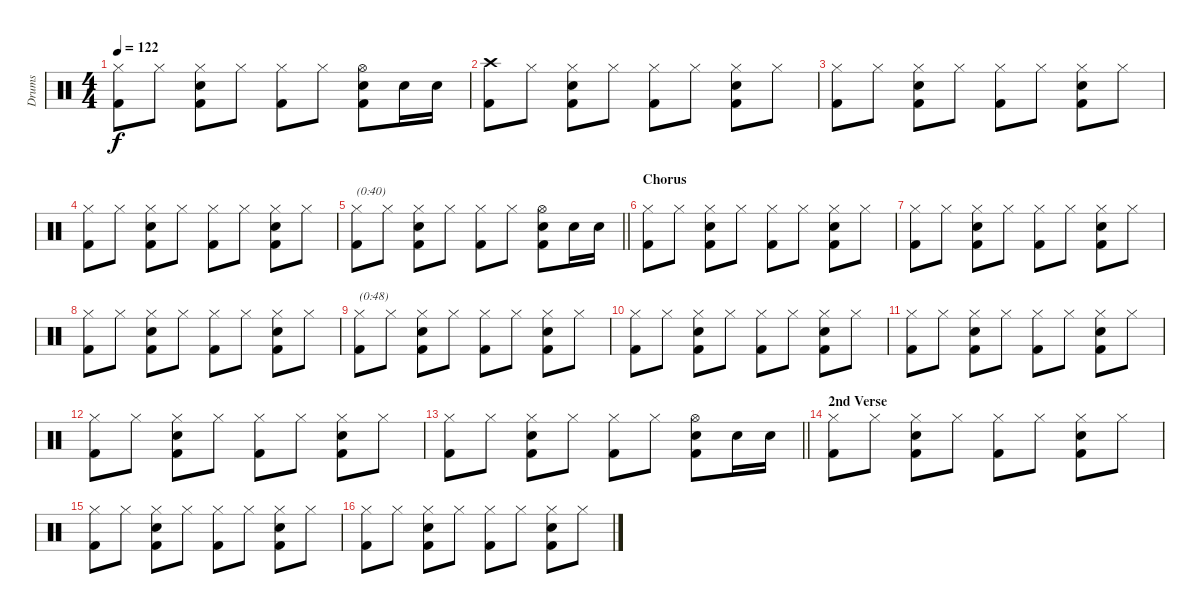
\track ("Drums" "Drums") {instrument percussion}
\staff {score}
\articulation defaults
\ts (4 4)
\tempo 122
\clef neutral
\ks c
("Hi-Hat (closed)" "Kick (hit) 2").8{dy f} "Hi-Hat (closed)".8 ("Hi-Hat (closed)" "Electric Snare (hit)" "Kick (hit) 2").8 "Hi-Hat (closed)".8 ("Hi-Hat (closed)" "Kick (hit) 2").8 "Hi-Hat (closed)".8 ("Hi-Hat (open)" "Electric Snare (hit)" "Kick (hit) 2").8 "Electric Snare (hit)".16 "Electric Snare (hit)".16 |
("Crash high (hit)" "Kick (hit) 2").8 "Hi-Hat (closed)".8 ("Hi-Hat (closed)" "Electric Snare (hit)" "Kick (hit) 2").8 "Hi-Hat (closed)".8 ("Hi-Hat (closed)" "Kick (hit) 2").8 "Hi-Hat (closed)".8 ("Hi-Hat (closed)" "Electric Snare (hit)" "Kick (hit) 2").8 "Hi-Hat (closed)".8 |
("Hi-Hat (closed)" "Kick (hit) 2").8 "Hi-Hat (closed)".8 ("Hi-Hat (closed)" "Electric Snare (hit)" "Kick (hit) 2").8 "Hi-Hat (closed)".8 ("Hi-Hat (closed)" "Kick (hit) 2").8 "Hi-Hat (closed)".8 ("Hi-Hat (closed)" "Electric Snare (hit)" "Kick (hit) 2").8 "Hi-Hat (closed)".8 |
("Hi-Hat (closed)" "Kick (hit) 2").8 "Hi-Hat (closed)".8 ("Hi-Hat (closed)" "Electric Snare (hit)" "Kick (hit) 2").8 "Hi-Hat (closed)".8 ("Hi-Hat (closed)" "Kick (hit) 2").8 "Hi-Hat (closed)".8 ("Hi-Hat (closed)" "Electric Snare (hit)" "Kick (hit) 2").8 "Hi-Hat (closed)".8 |
\barLineRight lightlight
("Hi-Hat (closed)" "Kick (hit) 2").8{txt "(0:40)"} "Hi-Hat (closed)".8 ("Hi-Hat (closed)" "Electric Snare (hit)" "Kick (hit) 2").8 "Hi-Hat (closed)".8 ("Hi-Hat (closed)" "Kick (hit) 2").8 "Hi-Hat (closed)".8 ("Hi-Hat (open)" "Electric Snare (hit)" "Kick (hit) 2").8 "Electric Snare (hit)".16 "Electric Snare (hit)".16 |
\section ("" "Chorus")
("Hi-Hat (closed)" "Kick (hit) 2").8 "Hi-Hat (closed)".8 ("Hi-Hat (closed)" "Electric Snare (hit)" "Kick (hit) 2").8 "Hi-Hat (closed)".8 ("Hi-Hat (closed)" "Kick (hit) 2").8 "Hi-Hat (closed)".8 ("Hi-Hat (closed)" "Electric Snare (hit)" "Kick (hit) 2").8 "Hi-Hat (closed)".8 |
("Hi-Hat (closed)" "Kick (hit) 2").8 "Hi-Hat (closed)".8 ("Hi-Hat (closed)" "Electric Snare (hit)" "Kick (hit) 2").8 "Hi-Hat (closed)".8 ("Hi-Hat (closed)" "Kick (hit) 2").8 "Hi-Hat (closed)".8 ("Hi-Hat (closed)" "Electric Snare (hit)" "Kick (hit) 2").8 "Hi-Hat (closed)".8 |
("Hi-Hat (closed)" "Kick (hit) 2").8 "Hi-Hat (closed)".8 ("Hi-Hat (closed)" "Electric Snare (hit)" "Kick (hit) 2").8 "Hi-Hat (closed)".8 ("Hi-Hat (closed)" "Kick (hit) 2").8 "Hi-Hat (closed)".8 ("Hi-Hat (closed)" "Electric Snare (hit)" "Kick (hit) 2").8 "Hi-Hat (closed)".8 |
("Hi-Hat (closed)" "Kick (hit) 2").8{txt "(0:48)"} "Hi-Hat (closed)".8 ("Hi-Hat (closed)" "Electric Snare (hit)" "Kick (hit) 2").8 "Hi-Hat (closed)".8 ("Hi-Hat (closed)" "Kick (hit) 2").8 "Hi-Hat (closed)".8 ("Hi-Hat (closed)" "Electric Snare (hit)" "Kick (hit) 2").8 "Hi-Hat (closed)".8 |
("Hi-Hat (closed)" "Kick (hit) 2").8 "Hi-Hat (closed)".8 ("Hi-Hat (closed)" "Electric Snare (hit)" "Kick (hit) 2").8 "Hi-Hat (closed)".8 ("Hi-Hat (closed)" "Kick (hit) 2").8 "Hi-Hat (closed)".8 ("Hi-Hat (closed)" "Electric Snare (hit)" "Kick (hit) 2").8 "Hi-Hat (closed)".8 |
("Hi-Hat (closed)" "Kick (hit) 2").8 "Hi-Hat (closed)".8 ("Hi-Hat (closed)" "Electric Snare (hit)" "Kick (hit) 2").8 "Hi-Hat (closed)".8 ("Hi-Hat (closed)" "Kick (hit) 2").8 "Hi-Hat (closed)".8 ("Hi-Hat (closed)" "Electric Snare (hit)" "Kick (hit) 2").8 "Hi-Hat (closed)".8 |
("Hi-Hat (closed)" "Kick (hit) 2").8 "Hi-Hat (closed)".8 ("Hi-Hat (closed)" "Electric Snare (hit)" "Kick (hit) 2").8 "Hi-Hat (closed)".8 ("Hi-Hat (closed)" "Kick (hit) 2").8 "Hi-Hat (closed)".8 ("Hi-Hat (closed)" "Electric Snare (hit)" "Kick (hit) 2").8 "Hi-Hat (closed)".8 |
\barLineRight lightlight
("Hi-Hat (closed)" "Kick (hit) 2").8 "Hi-Hat (closed)".8 ("Hi-Hat (closed)" "Electric Snare (hit)" "Kick (hit) 2").8 "Hi-Hat (closed)".8 ("Hi-Hat (closed)" "Kick (hit) 2").8 "Hi-Hat (closed)".8 ("Hi-Hat (open)" "Electric Snare (hit)" "Kick (hit) 2").8 "Electric Snare (hit)".16 "Electric Snare (hit)".16 |
\section ("" "2nd Verse")
("Hi-Hat (closed)" "Kick (hit) 2").8 "Hi-Hat (closed)".8 ("Hi-Hat (closed)" "Electric Snare (hit)" "Kick (hit) 2").8 "Hi-Hat (closed)".8 ("Hi-Hat (closed)" "Kick (hit) 2").8 "Hi-Hat (closed)".8 ("Hi-Hat (closed)" "Electric Snare (hit)" "Kick (hit) 2").8 "Hi-Hat (closed)".8 |
("Hi-Hat (closed)" "Kick (hit) 2").8 "Hi-Hat (closed)".8 ("Hi-Hat (closed)" "Electric Snare (hit)" "Kick (hit) 2").8 "Hi-Hat (closed)".8 ("Hi-Hat (closed)" "Kick (hit) 2").8 "Hi-Hat (closed)".8 ("Hi-Hat (closed)" "Electric Snare (hit)" "Kick (hit) 2").8 "Hi-Hat (closed)".8 |
("Hi-Hat (closed)" "Kick (hit) 2").8 "Hi-Hat (closed)".8 ("Hi-Hat (closed)" "Electric Snare (hit)" "Kick (hit) 2").8 "Hi-Hat (closed)".8 ("Hi-Hat (closed)" "Kick (hit) 2").8 "Hi-Hat (closed)".8 ("Hi-Hat (closed)" "Electric Snare (hit)" "Kick (hit) 2").8 "Hi-Hat (closed)".8
